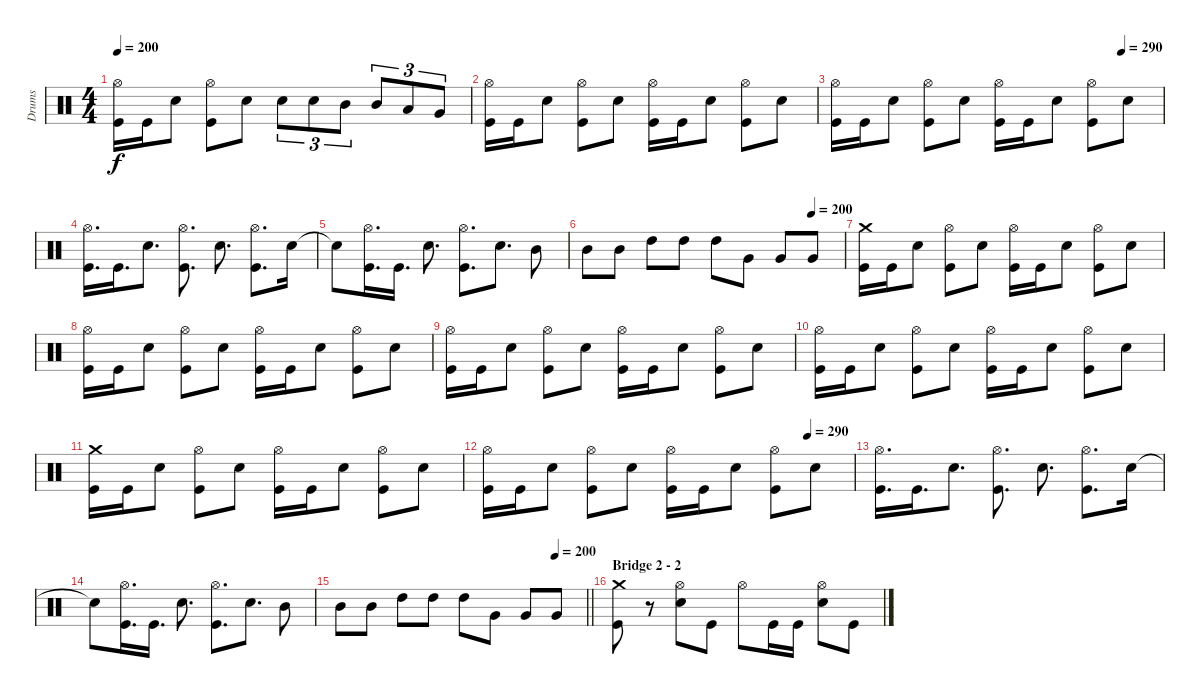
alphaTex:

\track ("Drums" "Drums") {instrument percussion}
\staff {score}
\articulation defaults
\ts (4 4)
\tempo 200
\clef neutral
\ks c
("Hi-Hat (open)" "Kick (hit)").16{dy f} "Kick (hit)".16 "Snare (hit) 2".8 ("Hi-Hat (open)" "Kick (hit)").8 "Snare (hit) 2".8 "Snare (hit) 2".8{tu (3 2)} "Snare (hit) 2".8{tu (3 2)} "Mid Tom (hit)".8{tu (3 2)} "Mid Tom (hit)".8{tu (3 2)} "Low Tom (hit)".8{tu (3 2)} "Very Low Tom (hit)".8{tu (3 2)} |
("Hi-Hat (open)" "Kick (hit)").16 "Kick (hit)".16 "Snare (hit) 2".8 ("Hi-Hat (open)" "Kick (hit)").8 "Snare (hit) 2".8 ("Hi-Hat (open)" "Kick (hit)").16 "Kick (hit)".16 "Snare (hit) 2".8 ("Hi-Hat (open)" "Kick (hit)").8 "Snare (hit) 2".8 |
\tempo (290 0.875)
("Hi-Hat (open)" "Kick (hit)").16 "Kick (hit)".16 "Snare (hit) 2".8 ("Hi-Hat (open)" "Kick (hit)").8 "Snare (hit) 2".8 ("Hi-Hat (open)" "Kick (hit)").16 "Kick (hit)".16 "Snare (hit) 2".8 ("Hi-Hat (open)" "Kick (hit)").8 "Snare (hit) 2".8 |
("Hi-Hat (open)" "Kick (hit)").16{d} "Kick (hit)".16{d} "Snare (hit) 2".8{d} ("Hi-Hat (open)" "Kick (hit)").8{d} "Snare (hit) 2".8{d} ("Hi-Hat (open)" "Kick (hit)").8{d} "Snare (hit) 2".16 |
"Snare (hit) 2"{t}.8 ("Hi-Hat (open)" "Kick (hit)").16{d} "Kick (hit)".16{d} "Snare (hit) 2".8{d} ("Hi-Hat (open)" "Kick (hit)").8{d} "Snare (hit) 2".8{d} "Mid Tom (hit)".8 |
\tempo (200 0.875)
"Mid Tom (hit)".8 "Mid Tom (hit)".8 "High Tom (hit)".8 "High Tom (hit)".8 "High Tom (hit)".8 "Very Low Tom (hit)".8 "Very Low Tom (hit)".8 "Very Low Tom (hit)".8 |
("Crash medium (hit)" "Kick (hit)").16 "Kick (hit)".16 "Snare (hit) 2".8 ("Hi-Hat (open)" "Kick (hit)").8 "Snare (hit) 2".8 ("Hi-Hat (open)" "Kick (hit)").16 "Kick (hit)".16 "Snare (hit) 2".8 ("Hi-Hat (open)" "Kick (hit)").8 "Snare (hit) 2".8 |
("Hi-Hat (open)" "Kick (hit)").16 "Kick (hit)".16 "Snare (hit) 2".8 ("Hi-Hat (open)" "Kick (hit)").8 "Snare (hit) 2".8 ("Hi-Hat (open)" "Kick (hit)").16 "Kick (hit)".16 "Snare (hit) 2".8 ("Hi-Hat (open)" "Kick (hit)").8 "Snare (hit) 2".8 |
("Hi-Hat (open)" "Kick (hit)").16 "Kick (hit)".16 "Snare (hit) 2".8 ("Hi-Hat (open)" "Kick (hit)").8 "Snare (hit) 2".8 ("Hi-Hat (open)" "Kick (hit)").16 "Kick (hit)".16 "Snare (hit) 2".8 ("Hi-Hat (open)" "Kick (hit)").8 "Snare (hit) 2".8 |
("Hi-Hat (open)" "Kick (hit)").16 "Kick (hit)".16 "Snare (hit) 2".8 ("Hi-Hat (open)" "Kick (hit)").8 "Snare (hit) 2".8 ("Hi-Hat (open)" "Kick (hit)").16 "Kick (hit)".16 "Snare (hit) 2".8 ("Hi-Hat (open)" "Kick (hit)").8 "Snare (hit) 2".8 |
("Crash medium (hit)" "Kick (hit)").16 "Kick (hit)".16 "Snare (hit) 2".8 ("Hi-Hat (open)" "Kick (hit)").8 "Snare (hit) 2".8 ("Hi-Hat (open)" "Kick (hit)").16 "Kick (hit)".16 "Snare (hit) 2".8 ("Hi-Hat (open)" "Kick (hit)").8 "Snare (hit) 2".8 |
\tempo (290 0.875)
("Hi-Hat (open)" "Kick (hit)").16 "Kick (hit)".16 "Snare (hit) 2".8 ("Hi-Hat (open)" "Kick (hit)").8 "Snare (hit) 2".8 ("Hi-Hat (open)" "Kick (hit)").16 "Kick (hit)".16 "Snare (hit) 2".8 ("Hi-Hat (open)" "Kick (hit)").8 "Snare (hit) 2".8 |
("Hi-Hat (open)" "Kick (hit)").16{d} "Kick (hit)".16{d} "Snare (hit) 2".8{d} ("Hi-Hat (open)" "Kick (hit)").8{d} "Snare (hit) 2".8{d} ("Hi-Hat (open)" "Kick (hit)").8{d} "Snare (hit) 2".16 |
"Snare (hit) 2"{t}.8 ("Hi-Hat (open)" "Kick (hit)").16{d} "Kick (hit)".16{d} "Snare (hit) 2".8{d} ("Hi-Hat (open)" "Kick (hit)").8{d} "Snare (hit) 2".8{d} "Mid Tom (hit)".8 |
\tempo (200 0.875)
\barLineRight lightlight "Mid Tom (hit)".8 "Mid Tom (hit)".8 "High Tom (hit)".8 "High Tom (hit)".8 "High Tom (hit)".8 "Very Low Tom (hit)".8 "Very Low Tom (hit)".8 "Very Low Tom (hit)".8
|
\section ("" "Bridge 2 - 2")
("Crash medium (hit)" "Kick (hit)").8 r.8 ("Hi-Hat (open)" "Snare (hit) 2").8 "Kick (hit)".8 "Hi-Hat (open)".8 "Kick (hit)".16 "Kick (hit)".16 ("Hi-Hat (open)" "Snare (hit) 2").8 "Kick (hit)".8
